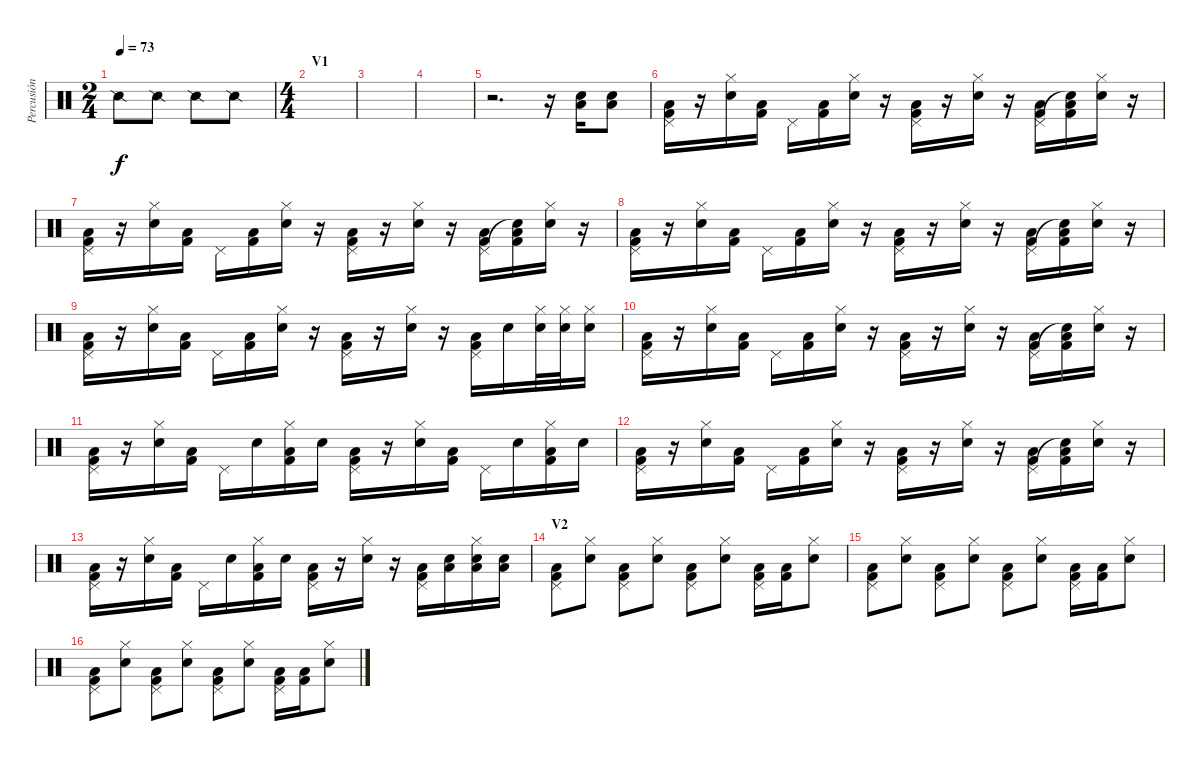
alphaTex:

\track ("Percusión" "Percusión") {instrument percussion}
\staff {score}
\articulation defaults
\ts (2 4)
\tempo 73
\clef neutral
\ks c "Snare (side stick) 2".8{dy f} "Snare (side stick) 2".8 "Snare (side stick) 2".8 "Snare (side stick) 2".8
|
\ts (4 4)
\section ("" "V1")
|
|
|
r.2{d} r.16 ("Low Floor Tom (hit)" "Snare (hit) 2").16 ("Low Floor Tom (hit)" "Snare (hit) 2").8 |
("Pedal Hi-Hat (hit)" "Low Floor Tom (hit)" "Kick (hit) 2").16 r.16 ("Hi-Hat (closed)" "Snare (hit) 2").16 ("Low Floor Tom (hit)" "Kick (hit) 2").16 "Pedal Hi-Hat (hit)".16 ("Low Floor Tom (hit)" "Kick (hit) 2").16 ("Hi-Hat (closed)" "Snare (hit) 2").16 r.16 ("Pedal Hi-Hat (hit)" "Low Floor Tom (hit)" "Kick (hit) 2").16 r.16 ("Hi-Hat (closed)" "Snare (hit) 2").16 r.16 ("Pedal Hi-Hat (hit)" "Low Floor Tom (hit)" "Kick (hit) 2").16 ("Snare (hit)"{t} "Low Floor Tom (hit)" "Kick (hit) 2").16 ("Hi-Hat (closed)" "Snare (hit) 2").16 r.16 |
("Pedal Hi-Hat (hit)" "Low Floor Tom (hit)" "Kick (hit) 2").16 r.16 ("Hi-Hat (closed)" "Snare (hit) 2").16 ("Low Floor Tom (hit)" "Kick (hit) 2").16 "Pedal Hi-Hat (hit)".16 ("Low Floor Tom (hit)" "Kick (hit) 2").16 ("Hi-Hat (closed)" "Snare (hit) 2").16 r.16 ("Pedal Hi-Hat (hit)" "Low Floor Tom (hit)" "Kick (hit) 2").16 r.16 ("Hi-Hat (closed)" "Snare (hit) 2").16 r.16 ("Pedal Hi-Hat (hit)" "Low Floor Tom (hit)" "Kick (hit) 2").16 ("Snare (hit)"{t} "Low Floor Tom (hit)" "Kick (hit) 2").16 ("Hi-Hat (closed)" "Snare (hit) 2").16 r.16 |
("Pedal Hi-Hat (hit)" "Low Floor Tom (hit)" "Kick (hit) 2").16 r.16 ("Hi-Hat (closed)" "Snare (hit) 2").16 ("Low Floor Tom (hit)" "Kick (hit) 2").16 "Pedal Hi-Hat (hit)".16 ("Low Floor Tom (hit)" "Kick (hit) 2").16 ("Hi-Hat (closed)" "Snare (hit) 2").16 r.16 ("Pedal Hi-Hat (hit)" "Low Floor Tom (hit)" "Kick (hit) 2").16 r.16 ("Hi-Hat (closed)" "Snare (hit) 2").16 r.16 ("Pedal Hi-Hat (hit)" "Low Floor Tom (hit)" "Kick (hit) 2").16 ("Snare (hit)"{t} "Low Floor Tom (hit)" "Kick (hit) 2").16 ("Hi-Hat (closed)" "Snare (hit) 2").16 r.16 |
("Pedal Hi-Hat (hit)" "Low Floor Tom (hit)" "Kick (hit) 2").16 r.16 ("Hi-Hat (closed)" "Snare (hit) 2").16 ("Low Floor Tom (hit)" "Kick (hit) 2").16 "Pedal Hi-Hat (hit)".16 ("Low Floor Tom (hit)" "Kick (hit) 2").16 ("Hi-Hat (closed)" "Snare (hit) 2").16 r.16 ("Pedal Hi-Hat (hit)" "Low Floor Tom (hit)" "Kick (hit) 2").16 r.16 ("Hi-Hat (closed)" "Snare (hit) 2").16 r.16 ("Pedal Hi-Hat (hit)" "Low Floor Tom (hit)" "Kick (hit) 2").16 "Snare (hit) 2".16 ("Hi-Hat (closed)" "Snare (hit) 2").32 ("Hi-Hat (closed)" "Snare (hit) 2").32 ("Hi-Hat (closed)" "Snare (hit) 2").16 |
("Pedal Hi-Hat (hit)" "Low Floor Tom (hit)" "Kick (hit) 2").16 r.16 ("Hi-Hat (closed)" "Snare (hit) 2").16 ("Low Floor Tom (hit)" "Kick (hit) 2").16 "Pedal Hi-Hat (hit)".16 ("Low Floor Tom (hit)" "Kick (hit) 2").16 ("Hi-Hat (closed)" "Snare (hit) 2").16 r.16 ("Pedal Hi-Hat (hit)" "Low Floor Tom (hit)" "Kick (hit) 2").16 r.16 ("Hi-Hat (closed)" "Snare (hit) 2").16 r.16 ("Pedal Hi-Hat (hit)" "Low Floor Tom (hit)" "Kick (hit) 2").16 ("Snare (hit)"{t} "Low Floor Tom (hit)" "Kick (hit) 2").16 ("Hi-Hat (closed)" "Snare (hit) 2").16 r.16 |
("Pedal Hi-Hat (hit)" "Low Floor Tom (hit)" "Kick (hit) 2").16 r.16 ("Hi-Hat (closed)" "Snare (hit) 2").16 ("Low Floor Tom (hit)" "Kick (hit) 2").16 "Pedal Hi-Hat (hit)".16 "Snare (hit) 2".16 ("Hi-Hat (closed)" "Low Floor Tom (hit)" "Kick (hit) 2").16 "Snare (hit) 2".16 ("Pedal Hi-Hat (hit)" "Low Floor Tom (hit)" "Kick (hit) 2").16 r.16 ("Hi-Hat (closed)" "Snare (hit) 2").16 ("Low Floor Tom (hit)" "Kick (hit) 2").16 "Pedal Hi-Hat (hit)".16 "Snare (hit) 2".16 ("Hi-Hat (closed)" "Low Floor Tom (hit)" "Kick (hit) 2").16 "Snare (hit) 2".16 |
("Pedal Hi-Hat (hit)" "Low Floor Tom (hit)" "Kick (hit) 2").16 r.16 ("Hi-Hat (closed)" "Snare (hit) 2").16 ("Low Floor Tom (hit)" "Kick (hit) 2").16 "Pedal Hi-Hat (hit)".16 ("Low Floor Tom (hit)" "Kick (hit) 2").16 ("Hi-Hat (closed)" "Snare (hit) 2").16 r.16 ("Pedal Hi-Hat (hit)" "Low Floor Tom (hit)" "Kick (hit) 2").16 r.16 ("Hi-Hat (closed)" "Snare (hit) 2").16 r.16 ("Pedal Hi-Hat (hit)" "Low Floor Tom (hit)" "Kick (hit) 2").16 ("Snare (hit)"{t} "Low Floor Tom (hit)" "Kick (hit) 2").16 ("Hi-Hat (closed)" "Snare (hit) 2").16 r.16 |
("Pedal Hi-Hat (hit)" "Low Floor Tom (hit)" "Kick (hit) 2").16 r.16 ("Hi-Hat (closed)" "Snare (hit) 2").16 ("Low Floor Tom (hit)" "Kick (hit) 2").16 "Pedal Hi-Hat (hit)".16 "Snare (hit) 2".16 ("Hi-Hat (closed)" "Low Floor Tom (hit)" "Kick (hit) 2").16 "Snare (hit) 2".16 ("Pedal Hi-Hat (hit)" "Low Floor Tom (hit)" "Kick (hit) 2").16 r.16 ("Hi-Hat (closed)" "Snare (hit) 2").16 r.16 ("Pedal Hi-Hat (hit)" "Low Floor Tom (hit)" "Kick (hit) 2").16 ("Low Floor Tom (hit)" "Snare (hit) 2").16 ("Hi-Hat (closed)" "Low Floor Tom (hit)" "Snare (hit) 2").16 ("Low Floor Tom (hit)" "Snare (hit) 2").16 |
\section ("" "V2")
("Pedal Hi-Hat (hit)" "Low Floor Tom (hit)" "Kick (hit) 2").8 ("Hi-Hat (closed)" "Snare (hit) 2").8 ("Pedal Hi-Hat (hit)" "Low Floor Tom (hit)" "Kick (hit) 2").8 ("Hi-Hat (closed)" "Snare (hit) 2").8 ("Pedal Hi-Hat (hit)" "Low Floor Tom (hit)" "Kick (hit) 2").8 ("Hi-Hat (closed)" "Snare (hit) 2").8 ("Pedal Hi-Hat (hit)" "Low Floor Tom (hit)" "Kick (hit) 2").16 ("Low Floor Tom (hit)" "Kick (hit) 2").16 ("Hi-Hat (closed)" "Snare (hit) 2").8 |
("Pedal Hi-Hat (hit)" "Low Floor Tom (hit)" "Kick (hit) 2").8 ("Hi-Hat (closed)" "Snare (hit) 2").8 ("Pedal Hi-Hat (hit)" "Low Floor Tom (hit)" "Kick (hit) 2").8 ("Hi-Hat (closed)" "Snare (hit) 2").8 ("Pedal Hi-Hat (hit)" "Low Floor Tom (hit)" "Kick (hit) 2").8 ("Hi-Hat (closed)" "Snare (hit) 2").8 ("Pedal Hi-Hat (hit)" "Low Floor Tom (hit)" "Kick (hit) 2").16 ("Low Floor Tom (hit)" "Kick (hit) 2").16 ("Hi-Hat (closed)" "Snare (hit) 2").8 |
("Pedal Hi-Hat (hit)" "Low Floor Tom (hit)" "Kick (hit) 2").8 ("Hi-Hat (closed)" "Snare (hit) 2").8 ("Pedal Hi-Hat (hit)" "Low Floor Tom (hit)" "Kick (hit) 2").8 ("Hi-Hat (closed)" "Snare (hit) 2").8 ("Pedal Hi-Hat (hit)" "Low Floor Tom (hit)" "Kick (hit) 2").8 ("Hi-Hat (closed)" "Snare (hit) 2").8 ("Pedal Hi-Hat (hit)" "Low Floor Tom (hit)" "Kick (hit) 2").16 ("Low Floor Tom (hit)" "Kick (hit) 2").16 ("Hi-Hat (closed)" "Snare (hit) 2").8
